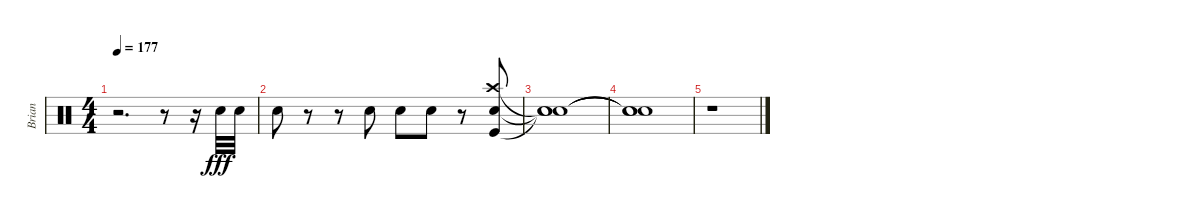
\track ("Brian" "Brian") {instrument percussion}
\staff {score}
\articulation defaults
\ts (4 4)
\tempo 177
\clef neutral
\ks c
r.2{d dy fff} r.8 r.16 "Electric Snare (hit)".32 "Electric Snare (hit)".32 |
"Electric Snare (hit)".8 r.8 r.8 "Electric Snare (hit)".8 "Electric Snare (hit)".8 "Electric Snare (hit)".8 r.8 ("Crash high (hit)" "Electric Snare (hit)" "Kick (hit)").8 |
("Snare (hit)"{t} "Snare (hit)"{t} "Snare (hit)"{t}).1 |
("Snare (hit)"{t} "Snare (hit)"{t} "Snare (hit)"{t}).1 |
r.1
